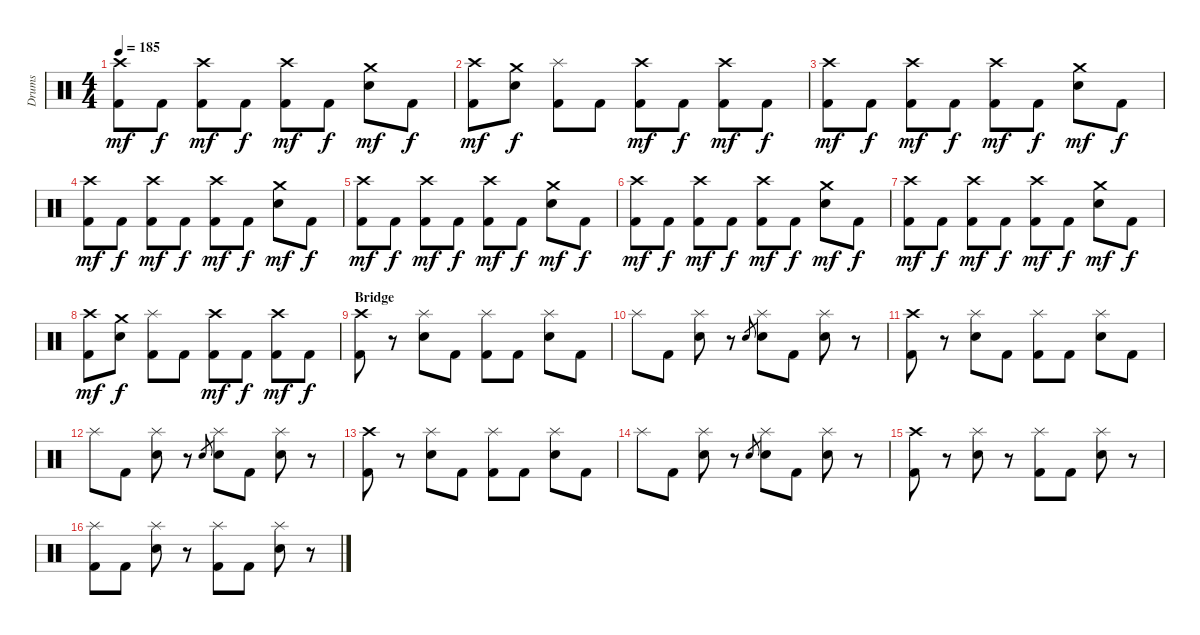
\track ("Drums" "Drums") {instrument percussion}
\staff {score}
\articulation defaults
\ts (4 4)
\tempo 185
\clef neutral
\ks c
("Crash high (hit)" "Kick (hit) 2").8{dy mf} "Kick (hit) 2".8{dy f} ("Crash high (hit)" "Kick (hit) 2").8{dy mf} "Kick (hit) 2".8{dy f} ("Crash high (hit)" "Kick (hit) 2").8{dy mf} "Kick (hit) 2".8{dy f} ("Crash medium (hit)" "Electric Snare (hit)").8{dy mf} "Kick (hit) 2".8{dy f} |
("Crash high (hit)" "Kick (hit) 2").8{dy mf} ("Crash medium (hit)" "Electric Snare (hit)").8{dy f} ("Splash (hit)" "Kick (hit) 2").8 "Kick (hit) 2".8 ("Crash high (hit)" "Kick (hit) 2").8{dy mf} "Kick (hit) 2".8{dy f} ("Crash high (hit)" "Kick (hit) 2").8{dy mf} "Kick (hit) 2".8{dy f} |
("Crash high (hit)" "Kick (hit) 2").8{dy mf} "Kick (hit) 2".8{dy f} ("Crash high (hit)" "Kick (hit) 2").8{dy mf} "Kick (hit) 2".8{dy f} ("Crash high (hit)" "Kick (hit) 2").8{dy mf} "Kick (hit) 2".8{dy f} ("Crash medium (hit)" "Electric Snare (hit)").8{dy mf} "Kick (hit) 2".8{dy f} |
("Crash high (hit)" "Kick (hit) 2").8{dy mf} "Kick (hit) 2".8{dy f} ("Crash high (hit)" "Kick (hit) 2").8{dy mf} "Kick (hit) 2".8{dy f} ("Crash high (hit)" "Kick (hit) 2").8{dy mf} "Kick (hit) 2".8{dy f} ("Crash medium (hit)" "Electric Snare (hit)").8{dy mf} "Kick (hit) 2".8{dy f} |
("Crash high (hit)" "Kick (hit) 2").8{dy mf} "Kick (hit) 2".8{dy f} ("Crash high (hit)" "Kick (hit) 2").8{dy mf} "Kick (hit) 2".8{dy f} ("Crash high (hit)" "Kick (hit) 2").8{dy mf} "Kick (hit) 2".8{dy f} ("Crash medium (hit)" "Electric Snare (hit)").8{dy mf} "Kick (hit) 2".8{dy f} |
("Crash high (hit)" "Kick (hit) 2").8{dy mf} "Kick (hit) 2".8{dy f} ("Crash high (hit)" "Kick (hit) 2").8{dy mf} "Kick (hit) 2".8{dy f} ("Crash high (hit)" "Kick (hit) 2").8{dy mf} "Kick (hit) 2".8{dy f} ("Crash medium (hit)" "Electric Snare (hit)").8{dy mf} "Kick (hit) 2".8{dy f} |
("Crash high (hit)" "Kick (hit) 2").8{dy mf} "Kick (hit) 2".8{dy f} ("Crash high (hit)" "Kick (hit) 2").8{dy mf} "Kick (hit) 2".8{dy f} ("Crash high (hit)" "Kick (hit) 2").8{dy mf} "Kick (hit) 2".8{dy f} ("Crash medium (hit)" "Electric Snare (hit)").8{dy mf} "Kick (hit) 2".8{dy f} |
("Crash high (hit)" "Kick (hit) 2").8{dy mf} ("Crash medium (hit)" "Electric Snare (hit)").8{dy f} ("Splash (hit)" "Kick (hit) 2").8 "Kick (hit) 2".8 ("Crash high (hit)" "Kick (hit) 2").8{dy mf} "Kick (hit) 2".8{dy f} ("Crash high (hit)" "Kick (hit) 2").8{dy mf} "Kick (hit) 2".8{dy f} |
\section ("" "Bridge")
("Crash high (hit)" "Kick (hit) 2").8 r.8 ("Splash (hit)" "Electric Snare (hit)").8 "Kick (hit) 2".8 ("Splash (hit)" "Kick (hit) 2").8 "Kick (hit) 2".8 ("Splash (hit)" "Electric Snare (hit)").8 "Kick (hit) 2".8 |
"Splash (hit)".8 "Kick (hit) 2".8 ("Splash (hit)" "Electric Snare (hit)").8 r.8 "Electric Snare (hit)".8{gr} ("Splash (hit)" "Electric Snare (hit)").8 "Kick (hit) 2".8 ("Splash (hit)" "Electric Snare (hit)").8 r.8 |
("Crash high (hit)" "Kick (hit) 2").8 r.8 ("Splash (hit)" "Electric Snare (hit)").8 "Kick (hit) 2".8 ("Splash (hit)" "Kick (hit) 2").8 "Kick (hit) 2".8 ("Splash (hit)" "Electric Snare (hit)").8 "Kick (hit) 2".8 |
"Splash (hit)".8 "Kick (hit) 2".8 ("Splash (hit)" "Electric Snare (hit)").8 r.8 "Electric Snare (hit)".8{gr} ("Splash (hit)" "Electric Snare (hit)").8 "Kick (hit) 2".8 ("Splash (hit)" "Electric Snare (hit)").8 r.8 |
("Crash high (hit)" "Kick (hit) 2").8 r.8 ("Splash (hit)" "Electric Snare (hit)").8 "Kick (hit) 2".8 ("Splash (hit)" "Kick (hit) 2").8 "Kick (hit) 2".8 ("Splash (hit)" "Electric Snare (hit)").8 "Kick (hit) 2".8 |
"Splash (hit)".8 "Kick (hit) 2".8 ("Splash (hit)" "Electric Snare (hit)").8 r.8 "Electric Snare (hit)".8{gr} ("Splash (hit)" "Electric Snare (hit)").8 "Kick (hit) 2".8 ("Splash (hit)" "Electric Snare (hit)").8 r.8 |
("Crash high (hit)" "Kick (hit) 2").8 r.8 ("Splash (hit)" "Electric Snare (hit)").8 r.8 ("Splash (hit)" "Kick (hit) 2").8 "Kick (hit) 2".8 ("Splash (hit)" "Electric Snare (hit)").8 r.8 |
("Splash (hit)" "Kick (hit) 2").8 "Kick (hit) 2".8 ("Splash (hit)" "Electric Snare (hit)").8 r.8 ("Splash (hit)" "Kick (hit) 2").8 "Kick (hit) 2".8 ("Splash (hit)" "Electric Snare (hit)").8 r.8
